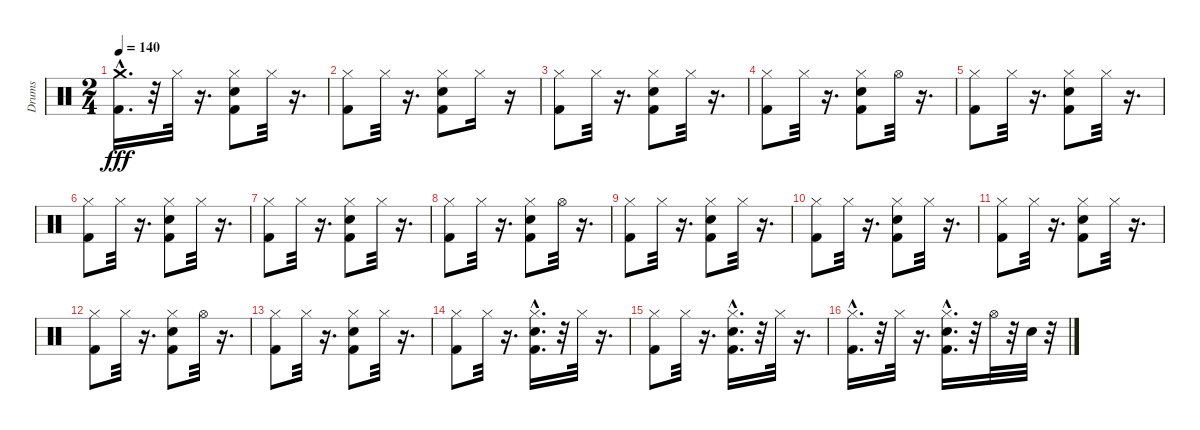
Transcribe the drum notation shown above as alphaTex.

\track ("Drums" "Drums") {instrument percussion}
\staff {score}
\articulation defaults
\ts (2 4)
\tempo 140
\clef neutral
\ks c
("Kick (hit) 2"{hac} "Crash medium (hit)").16{d dy fff} r.32 "Hi-Hat (closed)".32 r.16{d} ("Kick (hit) 2" "Snare (hit) 2" "Hi-Hat (closed)").8 "Hi-Hat (closed)".32 r.16{d} |
("Kick (hit) 2" "Hi-Hat (closed)").8 "Hi-Hat (closed)".32 r.16{d} ("Snare (hit) 2" "Kick (hit) 2" "Hi-Hat (closed)").8 "Hi-Hat (closed)".16 r.16 |
("Kick (hit) 2" "Hi-Hat (closed)").8 "Hi-Hat (closed)".32 r.16{d} ("Kick (hit) 2" "Hi-Hat (closed)" "Snare (hit) 2").8 "Hi-Hat (closed)".32 r.16{d} |
("Kick (hit) 2" "Hi-Hat (closed)").8 "Hi-Hat (closed)".32 r.16{d} ("Hi-Hat (closed)" "Kick (hit) 2" "Snare (hit) 2").8 "Hi-Hat (open)".32 r.16{d} |
("Kick (hit) 2" "Hi-Hat (closed)").8 "Hi-Hat (closed)".32 r.16{d} ("Kick (hit) 2" "Hi-Hat (closed)" "Snare (hit) 2").8 "Hi-Hat (closed)".32 r.16{d} |
("Kick (hit) 2" "Hi-Hat (closed)").8 "Hi-Hat (closed)".32 r.16{d} ("Hi-Hat (closed)" "Snare (hit) 2" "Kick (hit) 2").8 "Hi-Hat (closed)".32 r.16{d} |
("Kick (hit) 2" "Hi-Hat (closed)").8 "Hi-Hat (closed)".32 r.16{d} ("Snare (hit) 2" "Kick (hit) 2" "Hi-Hat (closed)").8 "Hi-Hat (closed)".32 r.16{d} |
("Kick (hit) 2" "Hi-Hat (closed)").8 "Hi-Hat (closed)".32 r.16{d} ("Hi-Hat (closed)" "Snare (hit) 2" "Kick (hit) 2").8 "Hi-Hat (open)".32 r.16{d} |
("Kick (hit) 2" "Hi-Hat (closed)").8 "Hi-Hat (closed)".32 r.16{d} ("Hi-Hat (closed)" "Snare (hit) 2" "Kick (hit) 2").8 "Hi-Hat (closed)".32 r.16{d} |
("Kick (hit) 2" "Hi-Hat (closed)").8 "Hi-Hat (closed)".32 r.16{d} ("Kick (hit) 2" "Hi-Hat (closed)" "Snare (hit) 2").8 "Hi-Hat (closed)".32 r.16{d} |
("Kick (hit) 2" "Hi-Hat (closed)").8 "Hi-Hat (closed)".32 r.16{d} ("Snare (hit) 2" "Kick (hit) 2" "Hi-Hat (closed)").8 "Hi-Hat (closed)".32 r.16{d} |
("Kick (hit) 2" "Hi-Hat (closed)").8 "Hi-Hat (closed)".32 r.16{d} ("Snare (hit) 2" "Kick (hit) 2" "Hi-Hat (closed)").8 "Hi-Hat (open)".32 r.16{d} |
("Kick (hit) 2" "Hi-Hat (closed)").8 "Hi-Hat (closed)".32 r.16{d} ("Snare (hit) 2" "Kick (hit) 2" "Hi-Hat (closed)").8 "Hi-Hat (closed)".32 r.16{d} |
("Kick (hit) 2" "Hi-Hat (closed)").8 "Hi-Hat (closed)".32 r.16{d} ("Kick (hit) 2"{hac} "Hi-Hat (closed)" "Snare (hit) 2"{hac}).16{d} r.32 "Hi-Hat (closed)".32 r.16{d} |
("Kick (hit) 2" "Hi-Hat (closed)").8 "Hi-Hat (closed)".32 r.16{d} ("Snare (hit) 2"{hac} "Kick (hit) 2"{hac} "Hi-Hat (closed)").16{d} r.32 "Hi-Hat (closed)".32 r.16{d} |
("Kick (hit) 2"{hac} "Hi-Hat (closed)").16{d} r.32 "Hi-Hat (closed)".32 r.16{d} ("Snare (hit) 2"{hac} "Kick (hit) 2"{hac} "Hi-Hat (closed)").16{d} r.32 "Hi-Hat (open)".32 r.32 "Snare (hit) 2".32 r.32
